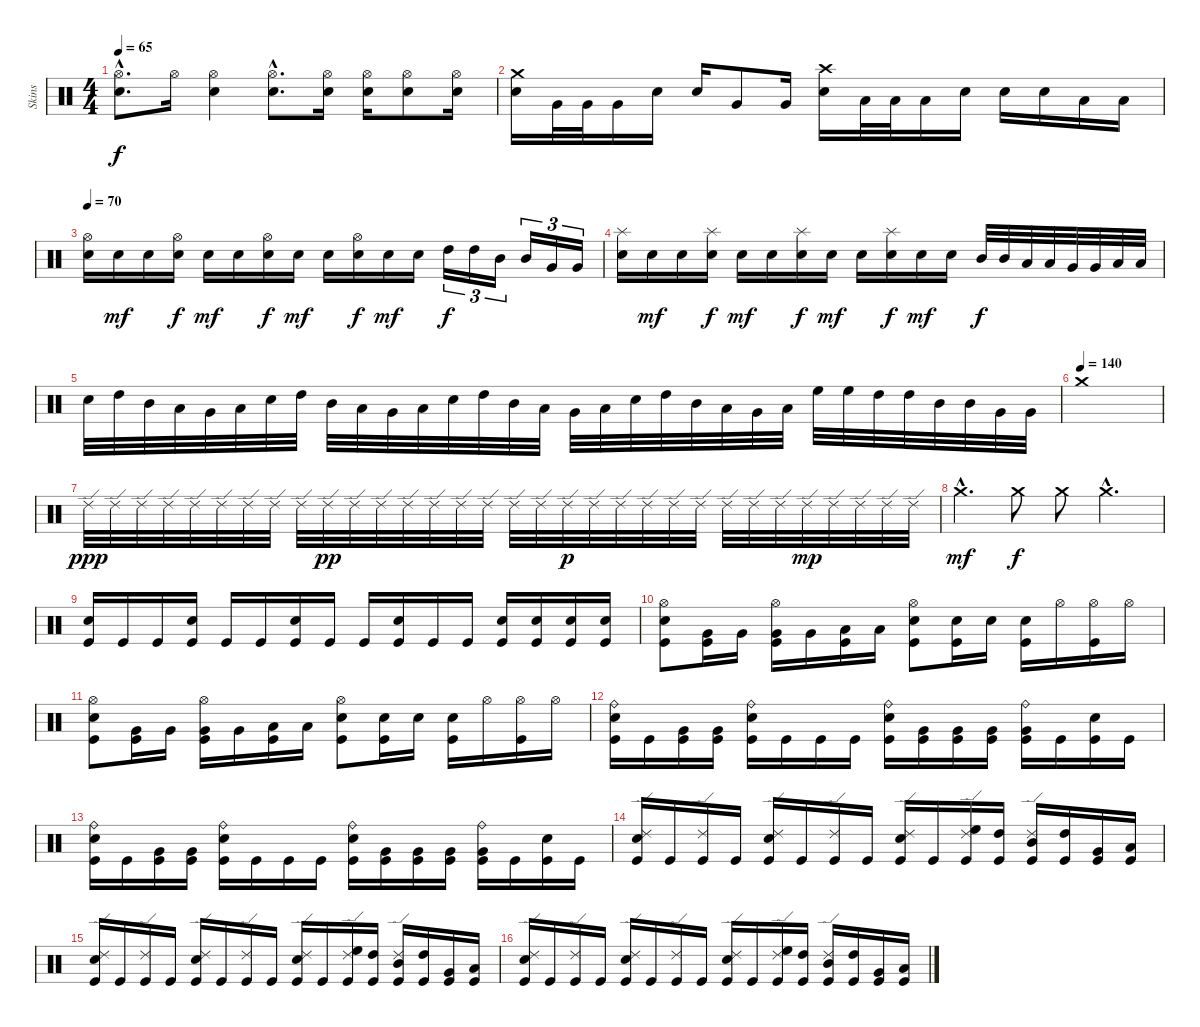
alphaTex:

\track ("Skins" "Skins") {instrument percussion}
\staff {score}
\articulation defaults
\ts (4 4)
\tempo 65
\clef neutral
\ks c
("Hi-Hat (open)"{hac} "Electric Snare (hit)"{hac}).8{d dy f} "Hi-Hat (open)".16 ("Hi-Hat (open)" "Electric Snare (hit)").4 ("Hi-Hat (open)"{hac} "Electric Snare (hit)"{hac}).8{d} ("Hi-Hat (open)" "Snare (hit) 2").16 ("Hi-Hat (open)" "Snare (hit) 2").16 ("Hi-Hat (open)" "Electric Snare (hit)").8 ("Hi-Hat (open)" "Snare (hit) 2").16 |
("Crash medium (hit)" "Electric Snare (hit)").16 "Very Low Tom (hit)".32 "Very Low Tom (hit)".32 "Very Low Tom (hit)".16 "Electric Snare (hit)".16 "Electric Snare (hit)".16 "Very Low Tom (hit)".8 "Very Low Tom (hit)".16 ("Crash high (hit)" "Electric Snare (hit)").16 "Low Floor Tom (hit)".32 "Low Floor Tom (hit)".32 "Low Floor Tom (hit)".16 "Electric Snare (hit)".16 "Electric Snare (hit)".16 "Electric Snare (hit)".16 "Low Floor Tom (hit)".16 "Low Floor Tom (hit)".16 |
\tempo 70
("Hi-Hat (open)" "Snare (hit) 2").16 "Electric Snare (hit)".16{dy mf} "Electric Snare (hit)".16 ("Hi-Hat (open)" "Snare (hit) 2").16{dy f} "Electric Snare (hit)".16{dy mf} "Electric Snare (hit)".16 ("Hi-Hat (open)" "Snare (hit) 2").16{dy f} "Electric Snare (hit)".16{dy mf} "Electric Snare (hit)".16 ("Hi-Hat (open)" "Snare (hit) 2").16{dy f} "Electric Snare (hit)".16{dy mf} "Electric Snare (hit)".16 "High Tom (hit)".16{tu (3 2) dy f} "High Tom (hit)".16{tu (3 2)} "Mid Tom (hit)".16{tu (3 2)} "Mid Tom (hit)".16{tu (3 2)} "Very Low Tom (hit)".16{tu (3 2)} "Very Low Tom (hit)".16{tu (3 2)} |
("Splash (hit)" "Snare (hit) 2").16 "Electric Snare (hit)".16{dy mf} "Electric Snare (hit)".16 ("Splash (hit)" "Snare (hit) 2").16{dy f} "Electric Snare (hit)".16{dy mf} "Electric Snare (hit)".16 ("Splash (hit)" "Snare (hit) 2").16{dy f} "Electric Snare (hit)".16{dy mf} "Electric Snare (hit)".16 ("Splash (hit)" "Snare (hit) 2").16{dy f} "Electric Snare (hit)".16{dy mf} "Electric Snare (hit)".16 "Mid Tom (hit)".32{dy f} "Mid Tom (hit)".32 "Low Tom (hit)".32 "Low Tom (hit)".32 "Very Low Tom (hit)".32 "Very Low Tom (hit)".32 "Low Floor Tom (hit)".32 "Low Floor Tom (hit)".32 |
"Snare (hit) 2".32 "High Tom (hit)".32 "Mid Tom (hit)".32 "Low Tom (hit)".32 "Very Low Tom (hit)".32 "Low Floor Tom (hit)".32 "Snare (hit) 2".32 "High Tom (hit)".32 "Mid Tom (hit)".32 "Low Tom (hit)".32 "Very Low Tom (hit)".32 "Low Floor Tom (hit)".32 "Snare (hit) 2".32 "High Tom (hit)".32 "Mid Tom (hit)".32 "Low Tom (hit)".32 "Very Low Tom (hit)".32 "Low Floor Tom (hit)".32 "Snare (hit) 2".32 "High Tom (hit)".32 "Mid Tom (hit)".32 "Low Tom (hit)".32 "Very Low Tom (hit)".32 "Low Floor Tom (hit)".32 "High Floor Tom (hit)".32 "High Floor Tom (hit)".32 "High Tom (hit)".32 "High Tom (hit)".32 "Mid Tom (hit)".32 "Mid Tom (hit)".32 "Very Low Tom (hit)".32 "Very Low Tom (hit)".32 |
\tempo (140)
"Crash medium (hit)".1 |
"Ride (edge) 2".32{dy ppp} "Ride (edge) 2".32 "Ride (edge) 2".32 "Ride (edge) 2".32 "Ride (edge) 2".32 "Ride (edge) 2".32 "Ride (edge) 2".32 "Ride (edge) 2".32 "Ride (edge) 2".32 "Ride (edge) 2".32{dy pp} "Ride (edge) 2".32 "Ride (edge) 2".32 "Ride (edge) 2".32 "Ride (edge) 2".32 "Ride (edge) 2".32 "Ride (edge) 2".32 "Ride (edge) 2".32 "Ride (edge) 2".32 "Ride (edge) 2".32{dy p} "Ride (edge) 2".32 "Ride (edge) 2".32 "Ride (edge) 2".32 "Ride (edge) 2".32 "Ride (edge) 2".32 "Ride (edge) 2".32 "Ride (edge) 2".32 "Ride (edge) 2".32 "Ride (edge) 2".32{dy mp} "Ride (edge) 2".32 "Ride (edge) 2".32 "Ride (edge) 2".32 "Ride (edge) 2".32 |
"Crash medium (hit)"{hac}.4{d dy mf} "Crash medium (hit)".8{dy f} "Crash medium (hit)".8 "Crash medium (hit)"{hac}.4{d} |
("Snare (hit) 2" "Kick (hit)").16 "Kick (hit)".16 "Kick (hit)".16 ("Snare (hit) 2" "Kick (hit)").16 "Kick (hit)".16 "Kick (hit)".16 ("Snare (hit) 2" "Kick (hit)").16 "Kick (hit)".16 "Kick (hit)".16 ("Snare (hit) 2" "Kick (hit)").16 "Kick (hit)".16 "Kick (hit)".16 ("Snare (hit) 2" "Kick (hit)").16 ("Snare (hit) 2" "Kick (hit)").16 ("Electric Snare (hit)" "Kick (hit)").16 ("Electric Snare (hit)" "Kick (hit)").16 |
("Hi-Hat (open)" "Electric Snare (hit)" "Kick (hit)").8 ("Very Low Tom (hit)" "Kick (hit)").16 "Very Low Tom (hit)".16 ("Hi-Hat (open)" "Very Low Tom (hit)" "Kick (hit)").16 "Very Low Tom (hit)".16 ("Low Floor Tom (hit)" "Kick (hit)").16 "Low Floor Tom (hit)".16 ("Hi-Hat (open)" "Snare (hit) 2" "Kick (hit)").8 ("Snare (hit) 2" "Kick (hit)").16 "Electric Snare (hit)".16 ("Electric Snare (hit)" "Kick (hit)").16 "Hi-Hat (open)".16 ("Hi-Hat (open)" "Kick (hit)").16 "Hi-Hat (open)".16 |
("Hi-Hat (open)" "Electric Snare (hit)" "Kick (hit)").8 ("Very Low Tom (hit)" "Kick (hit)").16 "Very Low Tom (hit)".16 ("Hi-Hat (open)" "Very Low Tom (hit)" "Kick (hit)").16 "Very Low Tom (hit)".16 ("Low Floor Tom (hit)" "Kick (hit)").16 "Low Floor Tom (hit)".16 ("Hi-Hat (open)" "Snare (hit) 2" "Kick (hit)").8 ("Snare (hit) 2" "Kick (hit)").16 "Electric Snare (hit)".16 ("Electric Snare (hit)" "Kick (hit)").16 "Hi-Hat (open)".16 ("Hi-Hat (open)" "Kick (hit)").16 "Hi-Hat (open)".16 |
("Ride (bell)" "Snare (hit) 2" "Kick (hit)").16 "Kick (hit)".16 ("Very Low Tom (hit)" "Kick (hit)").16 ("Very Low Tom (hit)" "Kick (hit)").16 ("Ride (bell)" "Snare (hit) 2" "Kick (hit)").16 "Kick (hit)".16 "Kick (hit)".16 "Kick (hit)".16 ("Ride (bell)" "Snare (hit) 2" "Kick (hit)").16 ("Very Low Tom (hit)" "Kick (hit)").16 ("Very Low Tom (hit)" "Kick (hit)").16 ("Very Low Tom (hit)" "Kick (hit)").16 ("Ride (bell)" "Very Low Tom (hit)" "Kick (hit)").16 "Kick (hit)".16 ("Electric Snare (hit)" "Kick (hit)").16 "Kick (hit)".16 |
("Ride (bell)" "Snare (hit) 2" "Kick (hit)").16 "Kick (hit)".16 ("Very Low Tom (hit)" "Kick (hit)").16 ("Very Low Tom (hit)" "Kick (hit)").16 ("Ride (bell)" "Snare (hit) 2" "Kick (hit)").16 "Kick (hit)".16 "Kick (hit)".16 "Kick (hit)".16 ("Ride (bell)" "Snare (hit) 2" "Kick (hit)").16 ("Very Low Tom (hit)" "Kick (hit)").16 ("Very Low Tom (hit)" "Kick (hit)").16 ("Very Low Tom (hit)" "Kick (hit)").16 ("Ride (bell)" "Very Low Tom (hit)" "Kick (hit)").16 "Kick (hit)".16 ("Electric Snare (hit)" "Kick (hit)").16 "Kick (hit)".16 |
("Ride (edge) 2" "Electric Snare (hit)" "Kick (hit)").16 "Kick (hit)".16 ("Ride (edge) 2" "Kick (hit)").16 "Kick (hit)".16 ("Ride (edge) 2" "Electric Snare (hit)" "Kick (hit)").16 "Kick (hit)".16 ("Ride (edge) 2" "Kick (hit)").16 "Kick (hit)".16 ("Ride (edge) 2" "Electric Snare (hit)" "Kick (hit)").16 "Kick (hit)".16 ("Ride (edge) 2" "High Floor Tom (hit)" "Kick (hit)").16 ("High Tom (hit)" "Kick (hit)").16 ("Ride (edge) 2" "Mid Tom (hit)" "Kick (hit)").16 ("High Tom (hit)" "Kick (hit)").16 ("Very Low Tom (hit)" "Kick (hit)").16 ("Low Floor Tom (hit)" "Kick (hit)").16 |
("Ride (edge) 2" "Electric Snare (hit)" "Kick (hit)").16 "Kick (hit)".16 ("Ride (edge) 2" "Kick (hit)").16 "Kick (hit)".16 ("Ride (edge) 2" "Electric Snare (hit)" "Kick (hit)").16 "Kick (hit)".16 ("Ride (edge) 2" "Kick (hit)").16 "Kick (hit)".16 ("Ride (edge) 2" "Electric Snare (hit)" "Kick (hit)").16 "Kick (hit)".16 ("Ride (edge) 2" "High Floor Tom (hit)" "Kick (hit)").16 ("High Tom (hit)" "Kick (hit)").16 ("Ride (edge) 2" "Mid Tom (hit)" "Kick (hit)").16 ("High Tom (hit)" "Kick (hit)").16 ("Very Low Tom (hit)" "Kick (hit)").16 ("Low Floor Tom (hit)" "Kick (hit)").16 |
("Ride (edge) 2" "Electric Snare (hit)" "Kick (hit)").16 "Kick (hit)".16 ("Ride (edge) 2" "Kick (hit)").16 "Kick (hit)".16 ("Ride (edge) 2" "Electric Snare (hit)" "Kick (hit)").16 "Kick (hit)".16 ("Ride (edge) 2" "Kick (hit)").16 "Kick (hit)".16 ("Ride (edge) 2" "Electric Snare (hit)" "Kick (hit)").16 "Kick (hit)".16 ("Ride (edge) 2" "High Floor Tom (hit)" "Kick (hit)").16 ("High Tom (hit)" "Kick (hit)").16 ("Ride (edge) 2" "Mid Tom (hit)" "Kick (hit)").16 ("High Tom (hit)" "Kick (hit)").16 ("Very Low Tom (hit)" "Kick (hit)").16 ("Low Floor Tom (hit)" "Kick (hit)").16
